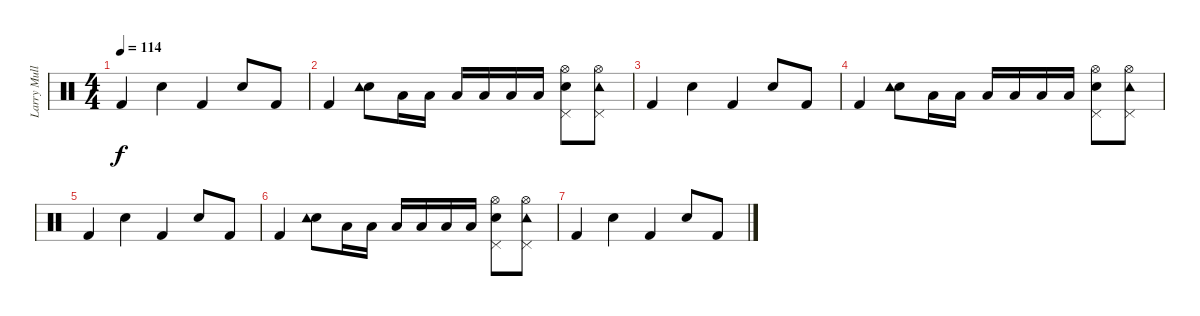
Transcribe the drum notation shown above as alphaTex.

\track ("Larry Mullen Jr Drums" "Larry Mull") {instrument percussion}
\staff {score}
\articulation defaults
\ts (4 4)
\tempo 114
\clef neutral
\ks c "Kick (hit) 2".4{dy f} "Snare (hit) 2".4 "Kick (hit) 2".4 "Snare (hit) 2".8 "Kick (hit) 2".8
|
"Kick (hit) 2".4 ("Snare (hit) 2" "Tambourine (hit)").8 "Low Tom (hit)".16 "Low Tom (hit)".16 "Low Tom (hit)".16 "Low Tom (hit)".16 "Low Tom (hit)".16 "Low Tom (hit)".16 ("Snare (hit) 2" "Pedal Hi-Hat (hit)" "Hi-Hat (open)").8 ("Hi-Hat (open)" "Pedal Hi-Hat (hit)" "Tambourine (hit)").8 |
"Kick (hit) 2".4 "Snare (hit) 2".4 "Kick (hit) 2".4 "Snare (hit) 2".8 "Kick (hit) 2".8 |
"Kick (hit) 2".4 ("Snare (hit) 2" "Tambourine (hit)").8 "Low Tom (hit)".16 "Low Tom (hit)".16 "Low Tom (hit)".16 "Low Tom (hit)".16 "Low Tom (hit)".16 "Low Tom (hit)".16 ("Snare (hit) 2" "Pedal Hi-Hat (hit)" "Hi-Hat (open)").8 ("Hi-Hat (open)" "Pedal Hi-Hat (hit)" "Tambourine (hit)").8 |
"Kick (hit) 2".4 "Snare (hit) 2".4 "Kick (hit) 2".4 "Snare (hit) 2".8 "Kick (hit) 2".8 |
"Kick (hit) 2".4 ("Snare (hit) 2" "Tambourine (hit)").8 "Low Tom (hit)".16 "Low Tom (hit)".16 "Low Tom (hit)".16 "Low Tom (hit)".16 "Low Tom (hit)".16 "Low Tom (hit)".16 ("Snare (hit) 2" "Pedal Hi-Hat (hit)" "Hi-Hat (open)").8 ("Hi-Hat (open)" "Pedal Hi-Hat (hit)" "Tambourine (hit)").8 |
"Kick (hit) 2".4 "Snare (hit) 2".4 "Kick (hit) 2".4 "Snare (hit) 2".8 "Kick (hit) 2".8
